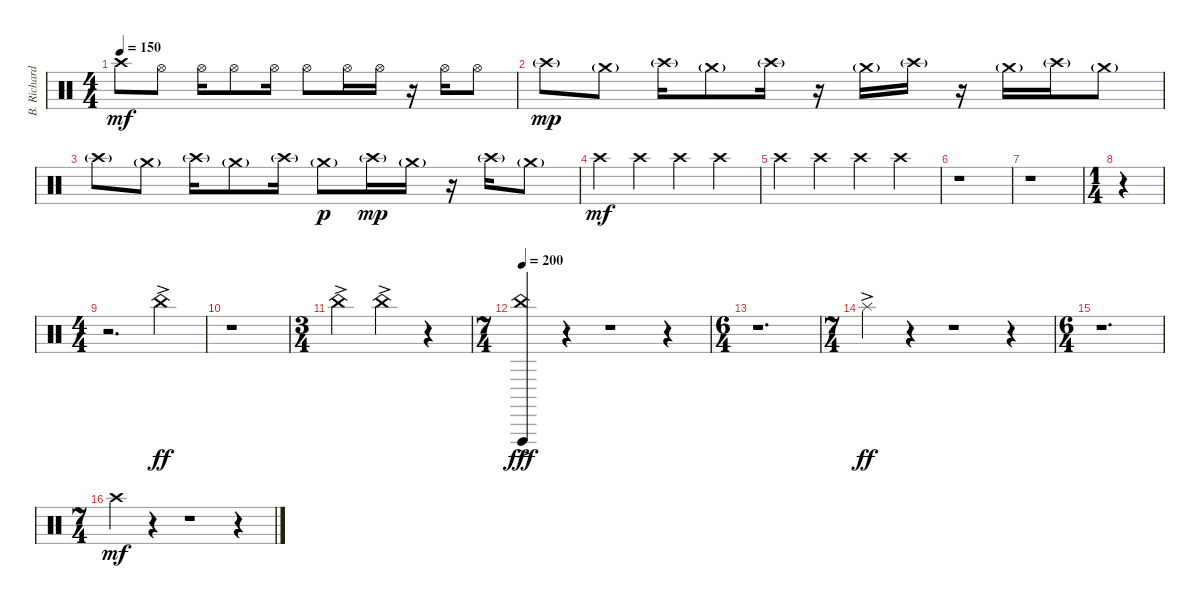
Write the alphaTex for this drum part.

\track ("B. Richardson Drums" "B. Richard") {instrument percussion}
\staff {score}
\articulation defaults
\ts (4 4)
\tempo 150
\clef neutral
\ks c "Crash high (hit)".8{dy mf} "Hi-Hat (open)".8 "Hi-Hat (open)".16 "Hi-Hat (open)".8 "Hi-Hat (open)".16 "Hi-Hat (open)".8 "Hi-Hat (open)".16 "Hi-Hat (open)".16
r.16 "Hi-Hat (open)".16 "Hi-Hat (open)".8 |
"Crash high (hit)"{g}.8{dy mp} "Crash medium (hit)"{g}.8 "Crash high (hit)"{g}.16 "Crash medium (hit)"{g}.8 "Crash high (hit)"{g}.16 r.16 "Crash medium (hit)"{g}.16 "Crash high (hit)"{g}.16 r.16 "Crash medium (hit)"{g}.16 "Crash high (hit)"{g}.16 "Crash medium (hit)"{g}.8 |
"Crash high (hit)"{g}.8 "Crash medium (hit)"{g}.8 "Crash high (hit)"{g}.16 "Crash medium (hit)"{g}.8 "Crash high (hit)"{g}.16 "Crash medium (hit)"{g}.8{dy p} "Crash high (hit)"{g}.16{dy mp} "Crash medium (hit)"{g}.16 r.16 "Crash high (hit)"{g}.16 "Crash medium (hit)"{g}.8 |
"Crash high (hit)".4{dy mf} "Crash high (hit)".4 "Crash high (hit)".4 "Crash high (hit)".4 |
"Crash high (hit)".4 "Crash high (hit)".4 "Crash high (hit)".4 "Crash high (hit)".4 |
r.1 |
r.1 |
\ts (1 4)
r.4 |
\ts (4 4)
r.2{d} "China (hit)"{ac}.4{dy ff} |
r.1 |
\ts (3 4)
"China (hit)"{ac}.4 "China (hit)"{ac}.4 r.4 |
\ts (7 4)
\tempo 200
("China (hit)"{ac} "Vibraslap (hit)").4{dy fff} r.4 r.1 r.4 |
\ts (6 4)
r.1{d} |
\ts (7 4)
"Splash (hit)"{ac}.4{dy ff} r.4 r.1 r.4 |
\ts (6 4)
r.1{d} |
\ts (7 4)
"Crash high (hit)".4{dy mf} r.4 r.1 r.4
